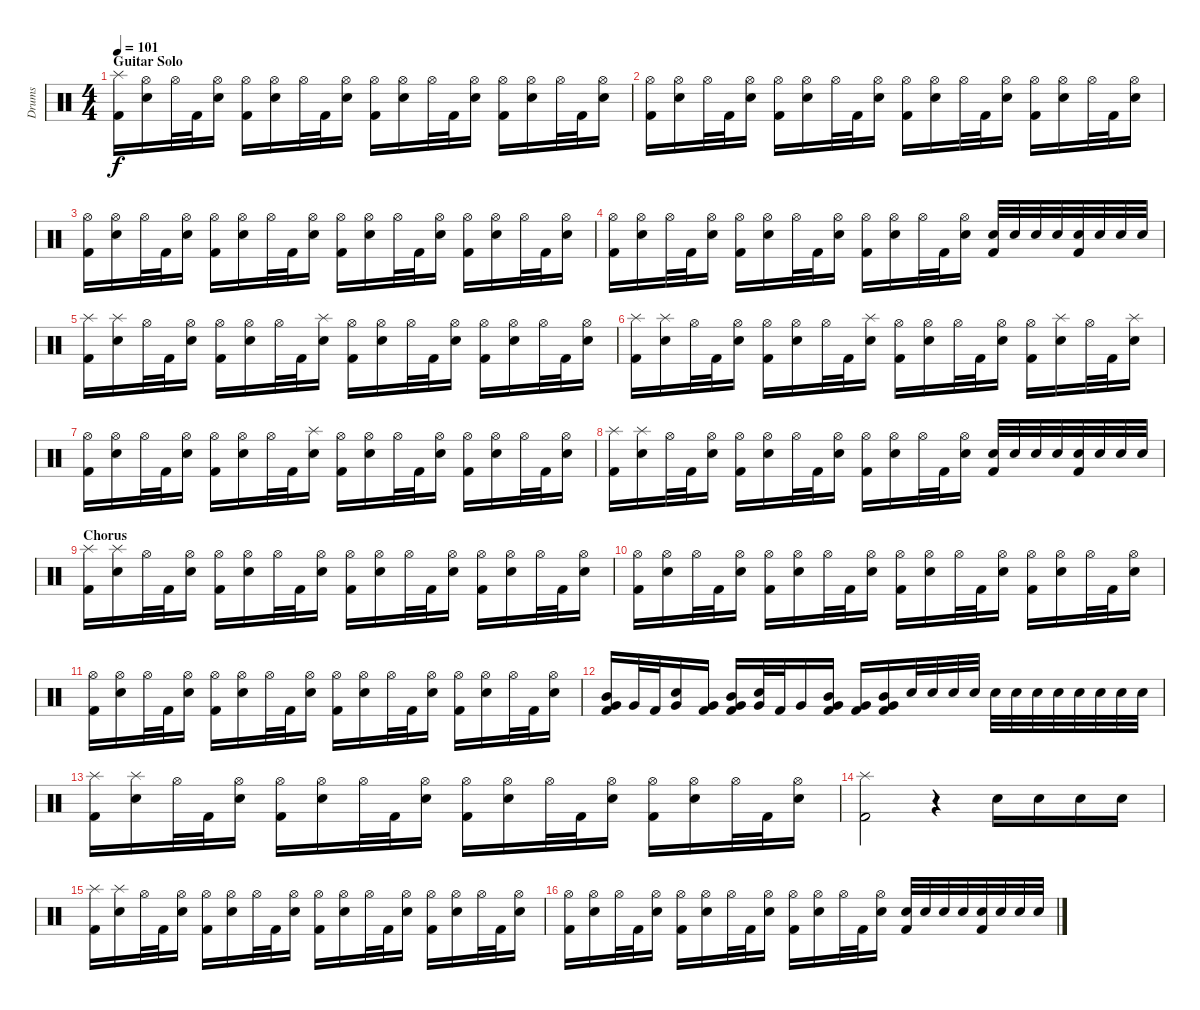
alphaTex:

\track ("Drums" "Drums") {instrument percussion}
\staff {score}
\articulation defaults
\ts (4 4)
\section ("" "Guitar Solo")
\tempo 101
\clef neutral
\ks c
("Splash (hit)" "Kick (hit) 2").16{dy f} ("Hi-Hat (open)" "Electric Snare (hit)").16 "Hi-Hat (open)".32 "Kick (hit) 2".32 ("Hi-Hat (open)" "Electric Snare (hit)").16 ("Hi-Hat (open)" "Kick (hit) 2").16 ("Hi-Hat (open)" "Electric Snare (hit)").16 "Hi-Hat (open)".32 "Kick (hit) 2".32 ("Hi-Hat (open)" "Electric Snare (hit)").16 ("Hi-Hat (open)" "Kick (hit) 2").16 ("Hi-Hat (open)" "Electric Snare (hit)").16 "Hi-Hat (open)".32 "Kick (hit) 2".32 ("Hi-Hat (open)" "Electric Snare (hit)").16 ("Hi-Hat (open)" "Kick (hit) 2").16 ("Hi-Hat (open)" "Electric Snare (hit)").16 "Hi-Hat (open)".32 "Kick (hit) 2".32 ("Hi-Hat (open)" "Electric Snare (hit)").16 |
("Hi-Hat (open)" "Kick (hit) 2").16 ("Hi-Hat (open)" "Electric Snare (hit)").16 "Hi-Hat (open)".32 "Kick (hit) 2".32 ("Hi-Hat (open)" "Electric Snare (hit)").16 ("Hi-Hat (open)" "Kick (hit) 2").16 ("Hi-Hat (open)" "Electric Snare (hit)").16 "Hi-Hat (open)".32 "Kick (hit) 2".32 ("Hi-Hat (open)" "Electric Snare (hit)").16 ("Hi-Hat (open)" "Kick (hit) 2").16 ("Hi-Hat (open)" "Electric Snare (hit)").16 "Hi-Hat (open)".32 "Kick (hit) 2".32 ("Hi-Hat (open)" "Electric Snare (hit)").16 ("Hi-Hat (open)" "Kick (hit) 2").16 ("Hi-Hat (open)" "Electric Snare (hit)").16 "Hi-Hat (open)".32 "Kick (hit) 2".32 ("Hi-Hat (open)" "Electric Snare (hit)").16 |
("Hi-Hat (open)" "Kick (hit) 2").16 ("Hi-Hat (open)" "Electric Snare (hit)").16 "Hi-Hat (open)".32 "Kick (hit) 2".32 ("Hi-Hat (open)" "Electric Snare (hit)").16 ("Hi-Hat (open)" "Kick (hit) 2").16 ("Hi-Hat (open)" "Electric Snare (hit)").16 "Hi-Hat (open)".32 "Kick (hit) 2".32 ("Hi-Hat (open)" "Electric Snare (hit)").16 ("Hi-Hat (open)" "Kick (hit) 2").16 ("Hi-Hat (open)" "Electric Snare (hit)").16 "Hi-Hat (open)".32 "Kick (hit) 2".32 ("Hi-Hat (open)" "Electric Snare (hit)").16 ("Hi-Hat (open)" "Kick (hit) 2").16 ("Hi-Hat (open)" "Electric Snare (hit)").16 "Hi-Hat (open)".32 "Kick (hit) 2".32 ("Hi-Hat (open)" "Electric Snare (hit)").16 |
("Hi-Hat (open)" "Kick (hit) 2").16 ("Hi-Hat (open)" "Electric Snare (hit)").16 "Hi-Hat (open)".32 "Kick (hit) 2".32 ("Hi-Hat (open)" "Electric Snare (hit)").16 ("Hi-Hat (open)" "Kick (hit) 2").16 ("Hi-Hat (open)" "Electric Snare (hit)").16 "Hi-Hat (open)".32 "Kick (hit) 2".32 ("Hi-Hat (open)" "Electric Snare (hit)").16 ("Hi-Hat (open)" "Kick (hit) 2").16 ("Hi-Hat (open)" "Electric Snare (hit)").16 "Hi-Hat (open)".32 "Kick (hit) 2".32 ("Hi-Hat (open)" "Electric Snare (hit)").16 ("Electric Snare (hit)" "Kick (hit) 2").32 "Electric Snare (hit)".32 "Electric Snare (hit)".32 "Electric Snare (hit)".32 ("Electric Snare (hit)" "Kick (hit) 2").32 "Electric Snare (hit)".32 "Electric Snare (hit)".32 "Electric Snare (hit)".32 |
("Splash (hit)" "Kick (hit) 2").16 ("Splash (hit)" "Electric Snare (hit)").16 "Hi-Hat (open)".32 "Kick (hit) 2".32 ("Hi-Hat (open)" "Electric Snare (hit)").16 ("Hi-Hat (open)" "Kick (hit) 2").16 ("Hi-Hat (open)" "Electric Snare (hit)").16 "Hi-Hat (open)".32 "Kick (hit) 2".32 ("Splash (hit)" "Electric Snare (hit)").16 ("Hi-Hat (open)" "Kick (hit) 2").16 ("Hi-Hat (open)" "Electric Snare (hit)").16 "Hi-Hat (open)".32 "Kick (hit) 2".32 ("Hi-Hat (open)" "Electric Snare (hit)").16 ("Hi-Hat (open)" "Kick (hit) 2").16 ("Hi-Hat (open)" "Electric Snare (hit)").16 "Hi-Hat (open)".32 "Kick (hit) 2".32 ("Hi-Hat (open)" "Electric Snare (hit)").16 |
("Splash (hit)" "Kick (hit) 2").16 ("Splash (hit)" "Electric Snare (hit)").16 "Hi-Hat (open)".32 "Kick (hit) 2".32 ("Hi-Hat (open)" "Electric Snare (hit)").16 ("Hi-Hat (open)" "Kick (hit) 2").16 ("Hi-Hat (open)" "Electric Snare (hit)").16 "Hi-Hat (open)".32 "Kick (hit) 2".32 ("Splash (hit)" "Electric Snare (hit)").16 ("Hi-Hat (open)" "Kick (hit) 2").16 ("Hi-Hat (open)" "Electric Snare (hit)").16 "Hi-Hat (open)".32 "Kick (hit) 2".32 ("Hi-Hat (open)" "Electric Snare (hit)").16 ("Hi-Hat (open)" "Kick (hit) 2").16 ("Splash (hit)" "Electric Snare (hit)").16 "Hi-Hat (open)".32 "Kick (hit) 2".32 ("Splash (hit)" "Electric Snare (hit)").16 |
("Hi-Hat (open)" "Kick (hit) 2").16 ("Hi-Hat (open)" "Electric Snare (hit)").16 "Hi-Hat (open)".32 "Kick (hit) 2".32 ("Hi-Hat (open)" "Electric Snare (hit)").16 ("Hi-Hat (open)" "Kick (hit) 2").16 ("Hi-Hat (open)" "Electric Snare (hit)").16 "Hi-Hat (open)".32 "Kick (hit) 2".32 ("Splash (hit)" "Electric Snare (hit)").16 ("Hi-Hat (open)" "Kick (hit) 2").16 ("Hi-Hat (open)" "Electric Snare (hit)").16 "Hi-Hat (open)".32 "Kick (hit) 2".32 ("Hi-Hat (open)" "Electric Snare (hit)").16 ("Hi-Hat (open)" "Kick (hit) 2").16 ("Hi-Hat (open)" "Electric Snare (hit)").16 "Hi-Hat (open)".32 "Kick (hit) 2".32 ("Hi-Hat (open)" "Electric Snare (hit)").16 |
("Splash (hit)" "Kick (hit) 2").16 ("Splash (hit)" "Electric Snare (hit)").16 "Hi-Hat (open)".32 "Kick (hit) 2".32 ("Hi-Hat (open)" "Electric Snare (hit)").16 ("Hi-Hat (open)" "Kick (hit) 2").16 ("Hi-Hat (open)" "Electric Snare (hit)").16 "Hi-Hat (open)".32 "Kick (hit) 2".32 ("Hi-Hat (open)" "Electric Snare (hit)").16 ("Hi-Hat (open)" "Kick (hit) 2").16 ("Hi-Hat (open)" "Electric Snare (hit)").16 "Hi-Hat (open)".32 "Kick (hit) 2".32 ("Hi-Hat (open)" "Electric Snare (hit)").16 ("Electric Snare (hit)" "Kick (hit) 2").32 "Electric Snare (hit)".32 "Electric Snare (hit)".32 "Electric Snare (hit)".32 ("Electric Snare (hit)" "Kick (hit) 2").32 "Electric Snare (hit)".32 "Electric Snare (hit)".32 "Electric Snare (hit)".32 |
\section ("" "Chorus")
("Splash (hit)" "Kick (hit) 2").16 ("Splash (hit)" "Electric Snare (hit)").16 "Hi-Hat (open)".32 "Kick (hit) 2".32 ("Hi-Hat (open)" "Electric Snare (hit)").16 ("Hi-Hat (open)" "Kick (hit) 2").16 ("Hi-Hat (open)" "Electric Snare (hit)").16 "Hi-Hat (open)".32 "Kick (hit) 2".32 ("Hi-Hat (open)" "Electric Snare (hit)").16 ("Hi-Hat (open)" "Kick (hit) 2").16 ("Hi-Hat (open)" "Electric Snare (hit)").16 "Hi-Hat (open)".32 "Kick (hit) 2".32 ("Hi-Hat (open)" "Electric Snare (hit)").16 ("Hi-Hat (open)" "Kick (hit) 2").16 ("Hi-Hat (open)" "Electric Snare (hit)").16 "Hi-Hat (open)".32 "Kick (hit) 2".32 ("Hi-Hat (open)" "Electric Snare (hit)").16 |
("Hi-Hat (open)" "Kick (hit) 2").16 ("Hi-Hat (open)" "Electric Snare (hit)").16 "Hi-Hat (open)".32 "Kick (hit) 2".32 ("Hi-Hat (open)" "Electric Snare (hit)").16 ("Hi-Hat (open)" "Kick (hit) 2").16 ("Hi-Hat (open)" "Electric Snare (hit)").16 "Hi-Hat (open)".32 "Kick (hit) 2".32 ("Hi-Hat (open)" "Electric Snare (hit)").16 ("Hi-Hat (open)" "Kick (hit) 2").16 ("Hi-Hat (open)" "Electric Snare (hit)").16 "Hi-Hat (open)".32 "Kick (hit) 2".32 ("Hi-Hat (open)" "Electric Snare (hit)").16 ("Hi-Hat (open)" "Kick (hit) 2").16 ("Hi-Hat (open)" "Electric Snare (hit)").16 "Hi-Hat (open)".32 "Kick (hit) 2".32 ("Hi-Hat (open)" "Electric Snare (hit)").16 |
("Hi-Hat (open)" "Kick (hit) 2").16 ("Hi-Hat (open)" "Electric Snare (hit)").16 "Hi-Hat (open)".32 "Kick (hit) 2".32 ("Hi-Hat (open)" "Electric Snare (hit)").16 ("Hi-Hat (open)" "Kick (hit) 2").16 ("Hi-Hat (open)" "Electric Snare (hit)").16 "Hi-Hat (open)".32 "Kick (hit) 2".32 ("Hi-Hat (open)" "Electric Snare (hit)").16 ("Hi-Hat (open)" "Kick (hit) 2").16 ("Hi-Hat (open)" "Electric Snare (hit)").16 "Hi-Hat (open)".32 "Kick (hit) 2".32 ("Hi-Hat (open)" "Electric Snare (hit)").16 ("Hi-Hat (open)" "Kick (hit) 2").16 ("Hi-Hat (open)" "Electric Snare (hit)").16 "Hi-Hat (open)".32 "Kick (hit) 2".32 ("Hi-Hat (open)" "Electric Snare (hit)").16 |
("Mid Tom (hit)" "Very Low Tom (hit)" "Kick (hit) 2").16 "Very Low Tom (hit)".32 "Kick (hit) 2".32 ("Very Low Tom (hit)" "Electric Snare (hit)").16 ("Very Low Tom (hit)" "Kick (hit) 2").16 ("Mid Tom (hit)" "Very Low Tom (hit)" "Kick (hit) 2").16 ("Very Low Tom (hit)" "Electric Snare (hit)").32 "Kick (hit) 2".32 "Very Low Tom (hit)".16 ("Mid Tom (hit)" "Very Low Tom (hit)" "Kick (hit) 2").16 ("Very Low Tom (hit)" "Kick (hit) 2").16 ("Mid Tom (hit)" "Very Low Tom (hit)" "Kick (hit) 2").16 "Electric Snare (hit)".32 "Electric Snare (hit)".32 "Electric Snare (hit)".32 "Electric Snare (hit)".32 "Electric Snare (hit)".32 "Electric Snare (hit)".32 "Electric Snare (hit)".32 "Electric Snare (hit)".32 "Electric Snare (hit)".32 "Electric Snare (hit)".32 "Electric Snare (hit)".32 "Electric Snare (hit)".32 |
("Splash (hit)" "Kick (hit) 2").16 ("Splash (hit)" "Electric Snare (hit)").16 "Hi-Hat (open)".32 "Kick (hit) 2".32 ("Hi-Hat (open)" "Electric Snare (hit)").16 ("Hi-Hat (open)" "Kick (hit) 2").16 ("Hi-Hat (open)" "Electric Snare (hit)").16 "Hi-Hat (open)".32 "Kick (hit) 2".32 ("Hi-Hat (open)" "Electric Snare (hit)").16 ("Hi-Hat (open)" "Kick (hit) 2").16 ("Hi-Hat (open)" "Electric Snare (hit)").16 "Hi-Hat (open)".32 "Kick (hit) 2".32 ("Hi-Hat (open)" "Electric Snare (hit)").16 ("Hi-Hat (open)" "Kick (hit) 2").16 ("Hi-Hat (open)" "Electric Snare (hit)").16 "Hi-Hat (open)".32 "Kick (hit) 2".32 ("Hi-Hat (open)" "Electric Snare (hit)").16 |
("Splash (hit)" "Kick (hit) 2").2 r.4 "Electric Snare (hit)".16 "Electric Snare (hit)".16 "Electric Snare (hit)".16 "Electric Snare (hit)".16 |
("Splash (hit)" "Kick (hit) 2").16 ("Splash (hit)" "Electric Snare (hit)").16 "Hi-Hat (open)".32 "Kick (hit) 2".32 ("Hi-Hat (open)" "Electric Snare (hit)").16 ("Hi-Hat (open)" "Kick (hit) 2").16 ("Hi-Hat (open)" "Electric Snare (hit)").16 "Hi-Hat (open)".32 "Kick (hit) 2".32 ("Hi-Hat (open)" "Electric Snare (hit)").16 ("Hi-Hat (open)" "Kick (hit) 2").16 ("Hi-Hat (open)" "Electric Snare (hit)").16 "Hi-Hat (open)".32 "Kick (hit) 2".32 ("Hi-Hat (open)" "Electric Snare (hit)").16 ("Hi-Hat (open)" "Kick (hit) 2").16 ("Hi-Hat (open)" "Electric Snare (hit)").16 "Hi-Hat (open)".32 "Kick (hit) 2".32 ("Hi-Hat (open)" "Electric Snare (hit)").16 |
("Hi-Hat (open)" "Kick (hit) 2").16 ("Hi-Hat (open)" "Electric Snare (hit)").16 "Hi-Hat (open)".32 "Kick (hit) 2".32 ("Hi-Hat (open)" "Electric Snare (hit)").16 ("Hi-Hat (open)" "Kick (hit) 2").16 ("Hi-Hat (open)" "Electric Snare (hit)").16 "Hi-Hat (open)".32 "Kick (hit) 2".32 ("Hi-Hat (open)" "Electric Snare (hit)").16 ("Hi-Hat (open)" "Kick (hit) 2").16 ("Hi-Hat (open)" "Electric Snare (hit)").16 "Hi-Hat (open)".32 "Kick (hit) 2".32 ("Hi-Hat (open)" "Electric Snare (hit)").16 ("Electric Snare (hit)" "Kick (hit) 2").32 "Electric Snare (hit)".32 "Electric Snare (hit)".32 "Electric Snare (hit)".32 ("Electric Snare (hit)" "Kick (hit) 2").32 "Electric Snare (hit)".32 "Electric Snare (hit)".32 "Electric Snare (hit)".32
